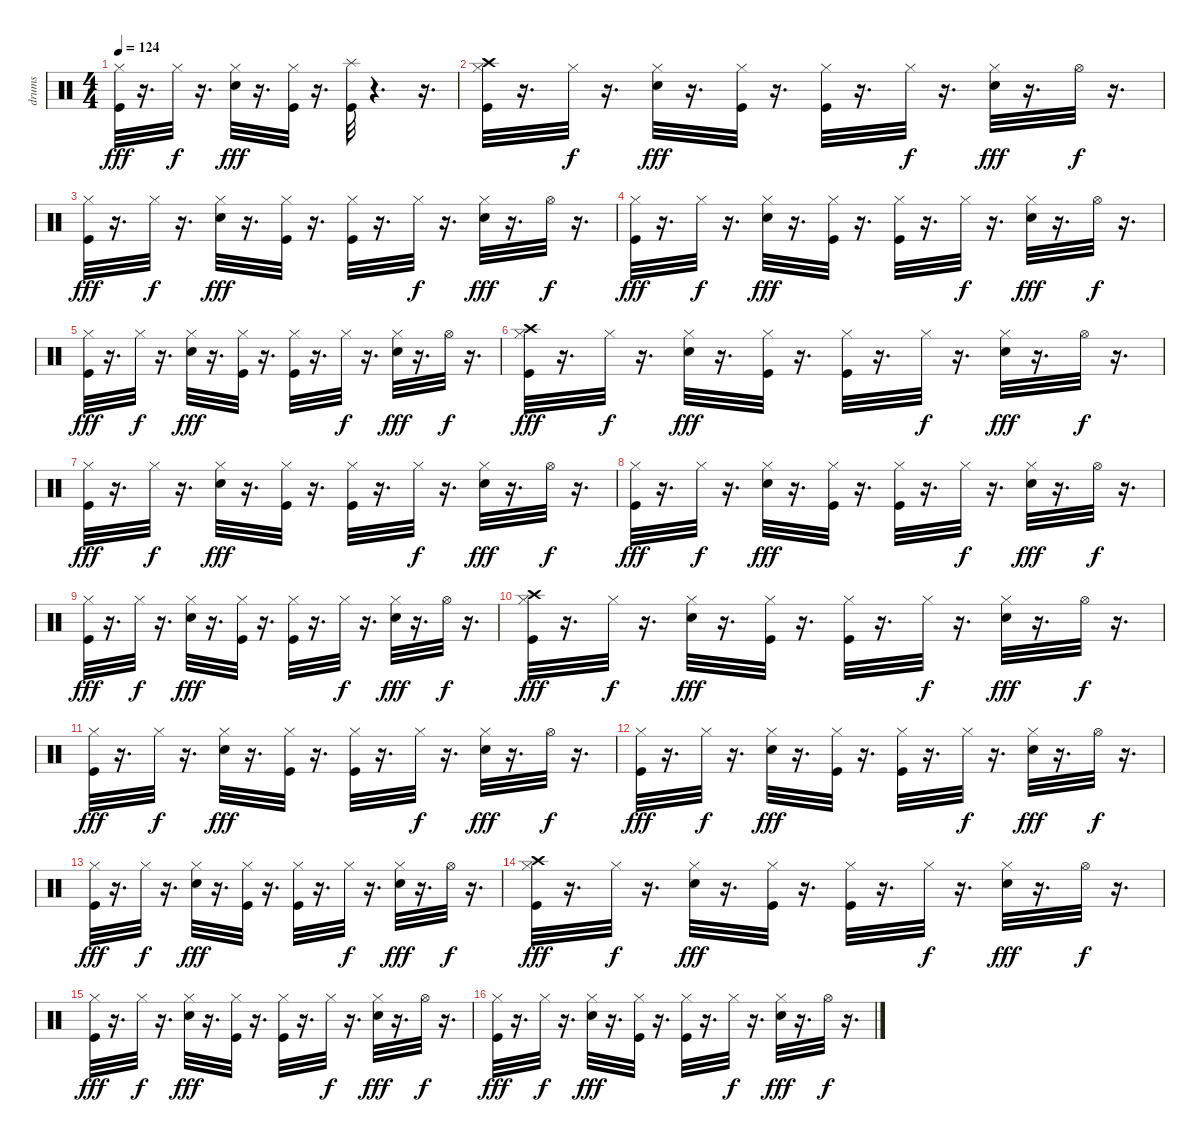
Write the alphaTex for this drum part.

\track ("drums" "drums") {instrument percussion}
\staff {score}
\articulation defaults
\ts (4 4)
\tempo 124
\clef neutral
\ks c
("Kick (hit)" "Hi-Hat (closed)").32{dy fff} r.16{d} "Hi-Hat (closed)".32{dy f} r.16{d} ("Electric Snare (hit)" "Hi-Hat (closed)").32{dy fff} r.16{d} ("Kick (hit)" "Hi-Hat (closed)").32 r.16{d} ("Splash (hit)" "Kick (hit)").32 r.4{d} r.16{d} |
("Crash high (hit)" "Hi-Hat (closed)" "Kick (hit)").32 r.16{d} "Hi-Hat (closed)".32{dy f} r.16{d} ("Hi-Hat (closed)" "Electric Snare (hit)").32{dy fff} r.16{d} ("Hi-Hat (closed)" "Kick (hit)").32 r.16{d} ("Hi-Hat (closed)" "Kick (hit)").32 r.16{d} "Hi-Hat (closed)".32{dy f} r.16{d} ("Hi-Hat (closed)" "Electric Snare (hit)").32{dy fff} r.16{d} "Hi-Hat (open)".32{dy f} r.16{d} |
("Kick (hit)" "Hi-Hat (closed)").32{dy fff} r.16{d} "Hi-Hat (closed)".32{dy f} r.16{d} ("Electric Snare (hit)" "Hi-Hat (closed)").32{dy fff} r.16{d} ("Kick (hit)" "Hi-Hat (closed)").32 r.16{d} ("Kick (hit)" "Hi-Hat (closed)").32 r.16{d} "Hi-Hat (closed)".32{dy f} r.16{d} ("Electric Snare (hit)" "Hi-Hat (closed)").32{dy fff} r.16{d} "Hi-Hat (open)".32{dy f} r.16{d} |
("Hi-Hat (closed)" "Kick (hit)").32{dy fff} r.16{d} "Hi-Hat (closed)".32{dy f} r.16{d} ("Hi-Hat (closed)" "Electric Snare (hit)").32{dy fff} r.16{d} ("Hi-Hat (closed)" "Kick (hit)").32 r.16{d} ("Hi-Hat (closed)" "Kick (hit)").32 r.16{d} "Hi-Hat (closed)".32{dy f} r.16{d} ("Hi-Hat (closed)" "Electric Snare (hit)").32{dy fff} r.16{d} "Hi-Hat (open)".32{dy f} r.16{d} |
("Kick (hit)" "Hi-Hat (closed)").32{dy fff} r.16{d} "Hi-Hat (closed)".32{dy f} r.16{d} ("Electric Snare (hit)" "Hi-Hat (closed)").32{dy fff} r.16{d} ("Kick (hit)" "Hi-Hat (closed)").32 r.16{d} ("Kick (hit)" "Hi-Hat (closed)").32 r.16{d} "Hi-Hat (closed)".32{dy f} r.16{d} ("Electric Snare (hit)" "Hi-Hat (closed)").32{dy fff} r.16{d} "Hi-Hat (open)".32{dy f} r.16{d} |
("Crash high (hit)" "Hi-Hat (closed)" "Kick (hit)").32{dy fff} r.16{d} "Hi-Hat (closed)".32{dy f} r.16{d} ("Hi-Hat (closed)" "Electric Snare (hit)").32{dy fff} r.16{d} ("Hi-Hat (closed)" "Kick (hit)").32 r.16{d} ("Hi-Hat (closed)" "Kick (hit)").32 r.16{d} "Hi-Hat (closed)".32{dy f} r.16{d} ("Hi-Hat (closed)" "Electric Snare (hit)").32{dy fff} r.16{d} "Hi-Hat (open)".32{dy f} r.16{d} |
("Hi-Hat (closed)" "Kick (hit)").32{dy fff} r.16{d} "Hi-Hat (closed)".32{dy f} r.16{d} ("Hi-Hat (closed)" "Electric Snare (hit)").32{dy fff} r.16{d} ("Hi-Hat (closed)" "Kick (hit)").32 r.16{d} ("Hi-Hat (closed)" "Kick (hit)").32 r.16{d} "Hi-Hat (closed)".32{dy f} r.16{d} ("Hi-Hat (closed)" "Electric Snare (hit)").32{dy fff} r.16{d} "Hi-Hat (open)".32{dy f} r.16{d} |
("Kick (hit)" "Hi-Hat (closed)").32{dy fff} r.16{d} "Hi-Hat (closed)".32{dy f} r.16{d} ("Electric Snare (hit)" "Hi-Hat (closed)").32{dy fff} r.16{d} ("Kick (hit)" "Hi-Hat (closed)").32 r.16{d} ("Kick (hit)" "Hi-Hat (closed)").32 r.16{d} "Hi-Hat (closed)".32{dy f} r.16{d} ("Electric Snare (hit)" "Hi-Hat (closed)").32{dy fff} r.16{d} "Hi-Hat (open)".32{dy f} r.16{d} |
("Kick (hit)" "Hi-Hat (closed)").32{dy fff} r.16{d} "Hi-Hat (closed)".32{dy f} r.16{d} ("Electric Snare (hit)" "Hi-Hat (closed)").32{dy fff} r.16{d} ("Kick (hit)" "Hi-Hat (closed)").32 r.16{d} ("Kick (hit)" "Hi-Hat (closed)").32 r.16{d} "Hi-Hat (closed)".32{dy f} r.16{d} ("Electric Snare (hit)" "Hi-Hat (closed)").32{dy fff} r.16{d} "Hi-Hat (open)".32{dy f} r.16{d} |
("Crash high (hit)" "Hi-Hat (closed)" "Kick (hit)").32{dy fff} r.16{d} "Hi-Hat (closed)".32{dy f} r.16{d} ("Hi-Hat (closed)" "Electric Snare (hit)").32{dy fff} r.16{d} ("Hi-Hat (closed)" "Kick (hit)").32 r.16{d} ("Hi-Hat (closed)" "Kick (hit)").32 r.16{d} "Hi-Hat (closed)".32{dy f} r.16{d} ("Hi-Hat (closed)" "Electric Snare (hit)").32{dy fff} r.16{d} "Hi-Hat (open)".32{dy f} r.16{d} |
("Kick (hit)" "Hi-Hat (closed)").32{dy fff} r.16{d} "Hi-Hat (closed)".32{dy f} r.16{d} ("Electric Snare (hit)" "Hi-Hat (closed)").32{dy fff} r.16{d} ("Kick (hit)" "Hi-Hat (closed)").32 r.16{d} ("Kick (hit)" "Hi-Hat (closed)").32 r.16{d} "Hi-Hat (closed)".32{dy f} r.16{d} ("Electric Snare (hit)" "Hi-Hat (closed)").32{dy fff} r.16{d} "Hi-Hat (open)".32{dy f} r.16{d} |
("Hi-Hat (closed)" "Kick (hit)").32{dy fff} r.16{d} "Hi-Hat (closed)".32{dy f} r.16{d} ("Hi-Hat (closed)" "Electric Snare (hit)").32{dy fff} r.16{d} ("Hi-Hat (closed)" "Kick (hit)").32 r.16{d} ("Hi-Hat (closed)" "Kick (hit)").32 r.16{d} "Hi-Hat (closed)".32{dy f} r.16{d} ("Hi-Hat (closed)" "Electric Snare (hit)").32{dy fff} r.16{d} "Hi-Hat (open)".32{dy f} r.16{d} |
("Kick (hit)" "Hi-Hat (closed)").32{dy fff} r.16{d} "Hi-Hat (closed)".32{dy f} r.16{d} ("Electric Snare (hit)" "Hi-Hat (closed)").32{dy fff} r.16{d} ("Kick (hit)" "Hi-Hat (closed)").32 r.16{d} ("Kick (hit)" "Hi-Hat (closed)").32 r.16{d} "Hi-Hat (closed)".32{dy f} r.16{d} ("Electric Snare (hit)" "Hi-Hat (closed)").32{dy fff} r.16{d} "Hi-Hat (open)".32{dy f} r.16{d} |
("Crash high (hit)" "Hi-Hat (closed)" "Kick (hit)").32{dy fff} r.16{d} "Hi-Hat (closed)".32{dy f} r.16{d} ("Hi-Hat (closed)" "Electric Snare (hit)").32{dy fff} r.16{d} ("Hi-Hat (closed)" "Kick (hit)").32 r.16{d} ("Hi-Hat (closed)" "Kick (hit)").32 r.16{d} "Hi-Hat (closed)".32{dy f} r.16{d} ("Hi-Hat (closed)" "Electric Snare (hit)").32{dy fff} r.16{d} "Hi-Hat (open)".32{dy f} r.16{d} |
("Kick (hit)" "Hi-Hat (closed)").32{dy fff} r.16{d} "Hi-Hat (closed)".32{dy f} r.16{d} ("Electric Snare (hit)" "Hi-Hat (closed)").32{dy fff} r.16{d} ("Kick (hit)" "Hi-Hat (closed)").32 r.16{d} ("Kick (hit)" "Hi-Hat (closed)").32 r.16{d} "Hi-Hat (closed)".32{dy f} r.16{d} ("Electric Snare (hit)" "Hi-Hat (closed)").32{dy fff} r.16{d} "Hi-Hat (open)".32{dy f} r.16{d} |
("Hi-Hat (closed)" "Kick (hit)").32{dy fff} r.16{d} "Hi-Hat (closed)".32{dy f} r.16{d} ("Hi-Hat (closed)" "Electric Snare (hit)").32{dy fff} r.16{d} ("Hi-Hat (closed)" "Kick (hit)").32 r.16{d} ("Hi-Hat (closed)" "Kick (hit)").32 r.16{d} "Hi-Hat (closed)".32{dy f} r.16{d} ("Hi-Hat (closed)" "Electric Snare (hit)").32{dy fff} r.16{d} "Hi-Hat (open)".32{dy f} r.16{d}
